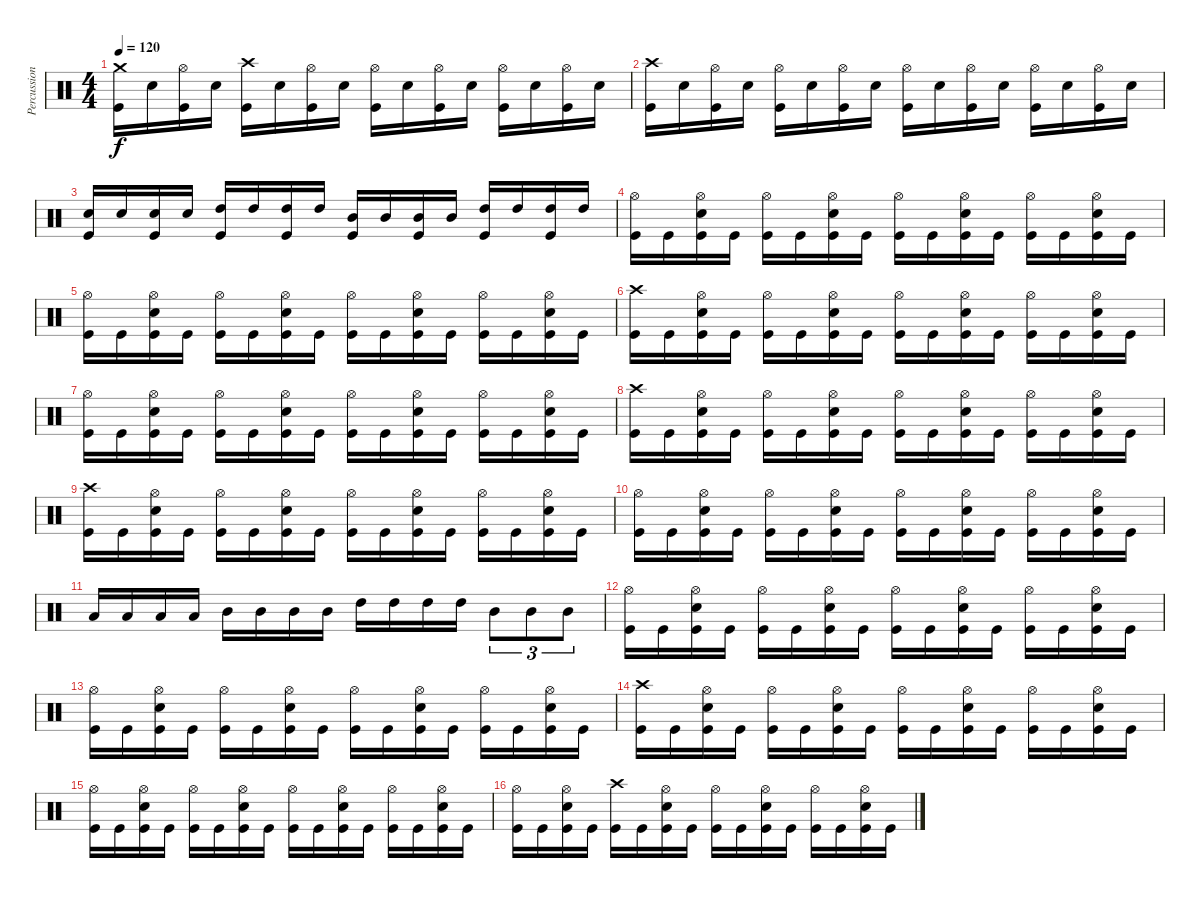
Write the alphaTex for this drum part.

\track ("Percussioni" "Percussion") {instrument percussion}
\staff {score}
\articulation defaults
\ts (4 4)
\tempo 120
\clef neutral
\ks c
("Crash medium (hit)" "Kick (hit)").16{dy f} "Electric Snare (hit)".16 ("Hi-Hat (open)" "Kick (hit)").16 "Electric Snare (hit)".16 ("Crash high (hit)" "Kick (hit)").16 "Electric Snare (hit)".16 ("Hi-Hat (open)" "Kick (hit)").16 "Electric Snare (hit)".16 ("Hi-Hat (open)" "Kick (hit)").16 "Electric Snare (hit)".16 ("Hi-Hat (open)" "Kick (hit)").16 "Electric Snare (hit)".16 ("Hi-Hat (open)" "Kick (hit)").16 "Electric Snare (hit)".16 ("Hi-Hat (open)" "Kick (hit)").16 "Electric Snare (hit)".16 |
("Crash high (hit)" "Kick (hit)").16 "Electric Snare (hit)".16 ("Hi-Hat (open)" "Kick (hit)").16 "Electric Snare (hit)".16 ("Hi-Hat (open)" "Kick (hit)").16 "Electric Snare (hit)".16 ("Hi-Hat (open)" "Kick (hit)").16 "Electric Snare (hit)".16 ("Hi-Hat (open)" "Kick (hit)").16 "Electric Snare (hit)".16 ("Hi-Hat (open)" "Kick (hit)").16 "Electric Snare (hit)".16 ("Hi-Hat (open)" "Kick (hit)").16 "Electric Snare (hit)".16 ("Hi-Hat (open)" "Kick (hit)").16 "Electric Snare (hit)".16 |
("Electric Snare (hit)" "Kick (hit)").16 "Electric Snare (hit)".16 ("Electric Snare (hit)" "Kick (hit)").16 "Electric Snare (hit)".16 ("High Tom (hit)" "Kick (hit)").16 "High Tom (hit)".16 ("High Tom (hit)" "Kick (hit)").16 "High Tom (hit)".16 ("Mid Tom (hit)" "Kick (hit)").16 "Mid Tom (hit)".16 ("Mid Tom (hit)" "Kick (hit)").16 "Mid Tom (hit)".16 ("High Tom (hit)" "Kick (hit)").16 "High Tom (hit)".16 ("High Tom (hit)" "Kick (hit)").16 "High Tom (hit)".16 |
("Hi-Hat (open)" "Kick (hit)").16 "Kick (hit)".16 ("Hi-Hat (open)" "Electric Snare (hit)" "Kick (hit)").16 "Kick (hit)".16 ("Hi-Hat (open)" "Kick (hit)").16 "Kick (hit)".16 ("Hi-Hat (open)" "Electric Snare (hit)" "Kick (hit)").16 "Kick (hit)".16 ("Hi-Hat (open)" "Kick (hit)").16 "Kick (hit)".16 ("Hi-Hat (open)" "Electric Snare (hit)" "Kick (hit)").16 "Kick (hit)".16 ("Hi-Hat (open)" "Kick (hit)").16 "Kick (hit)".16 ("Hi-Hat (open)" "Electric Snare (hit)" "Kick (hit)").16 "Kick (hit)".16 |
("Hi-Hat (open)" "Kick (hit)").16 "Kick (hit)".16 ("Hi-Hat (open)" "Electric Snare (hit)" "Kick (hit)").16 "Kick (hit)".16 ("Hi-Hat (open)" "Kick (hit)").16 "Kick (hit)".16 ("Hi-Hat (open)" "Electric Snare (hit)" "Kick (hit)").16 "Kick (hit)".16 ("Hi-Hat (open)" "Kick (hit)").16 "Kick (hit)".16 ("Hi-Hat (open)" "Electric Snare (hit)" "Kick (hit)").16 "Kick (hit)".16 ("Hi-Hat (open)" "Kick (hit)").16 "Kick (hit)".16 ("Hi-Hat (open)" "Electric Snare (hit)" "Kick (hit)").16 "Kick (hit)".16 |
("Crash high (hit)" "Kick (hit)").16 "Kick (hit)".16 ("Hi-Hat (open)" "Electric Snare (hit)" "Kick (hit)").16 "Kick (hit)".16 ("Hi-Hat (open)" "Kick (hit)").16 "Kick (hit)".16 ("Hi-Hat (open)" "Electric Snare (hit)" "Kick (hit)").16 "Kick (hit)".16 ("Hi-Hat (open)" "Kick (hit)").16 "Kick (hit)".16 ("Hi-Hat (open)" "Electric Snare (hit)" "Kick (hit)").16 "Kick (hit)".16 ("Hi-Hat (open)" "Kick (hit)").16 "Kick (hit)".16 ("Hi-Hat (open)" "Electric Snare (hit)" "Kick (hit)").16 "Kick (hit)".16 |
("Hi-Hat (open)" "Kick (hit)").16 "Kick (hit)".16 ("Hi-Hat (open)" "Electric Snare (hit)" "Kick (hit)").16 "Kick (hit)".16 ("Hi-Hat (open)" "Kick (hit)").16 "Kick (hit)".16 ("Hi-Hat (open)" "Electric Snare (hit)" "Kick (hit)").16 "Kick (hit)".16 ("Hi-Hat (open)" "Kick (hit)").16 "Kick (hit)".16 ("Hi-Hat (open)" "Electric Snare (hit)" "Kick (hit)").16 "Kick (hit)".16 ("Hi-Hat (open)" "Kick (hit)").16 "Kick (hit)".16 ("Hi-Hat (open)" "Electric Snare (hit)" "Kick (hit)").16 "Kick (hit)".16 |
("Crash high (hit)" "Kick (hit)").16 "Kick (hit)".16 ("Hi-Hat (open)" "Electric Snare (hit)" "Kick (hit)").16 "Kick (hit)".16 ("Hi-Hat (open)" "Kick (hit)").16 "Kick (hit)".16 ("Hi-Hat (open)" "Electric Snare (hit)" "Kick (hit)").16 "Kick (hit)".16 ("Hi-Hat (open)" "Kick (hit)").16 "Kick (hit)".16 ("Hi-Hat (open)" "Electric Snare (hit)" "Kick (hit)").16 "Kick (hit)".16 ("Hi-Hat (open)" "Kick (hit)").16 "Kick (hit)".16 ("Hi-Hat (open)" "Electric Snare (hit)" "Kick (hit)").16 "Kick (hit)".16 |
("Crash high (hit)" "Kick (hit)").16 "Kick (hit)".16 ("Hi-Hat (open)" "Electric Snare (hit)" "Kick (hit)").16 "Kick (hit)".16 ("Hi-Hat (open)" "Kick (hit)").16 "Kick (hit)".16 ("Hi-Hat (open)" "Electric Snare (hit)" "Kick (hit)").16 "Kick (hit)".16 ("Hi-Hat (open)" "Kick (hit)").16 "Kick (hit)".16 ("Hi-Hat (open)" "Electric Snare (hit)" "Kick (hit)").16 "Kick (hit)".16 ("Hi-Hat (open)" "Kick (hit)").16 "Kick (hit)".16 ("Hi-Hat (open)" "Electric Snare (hit)" "Kick (hit)").16 "Kick (hit)".16 |
("Hi-Hat (open)" "Kick (hit)").16 "Kick (hit)".16 ("Hi-Hat (open)" "Electric Snare (hit)" "Kick (hit)").16 "Kick (hit)".16 ("Hi-Hat (open)" "Kick (hit)").16 "Kick (hit)".16 ("Hi-Hat (open)" "Electric Snare (hit)" "Kick (hit)").16 "Kick (hit)".16 ("Hi-Hat (open)" "Kick (hit)").16 "Kick (hit)".16 ("Hi-Hat (open)" "Electric Snare (hit)" "Kick (hit)").16 "Kick (hit)".16 ("Hi-Hat (open)" "Kick (hit)").16 "Kick (hit)".16 ("Hi-Hat (open)" "Electric Snare (hit)" "Kick (hit)").16 "Kick (hit)".16 |
"Low Tom (hit)".16 "Low Tom (hit)".16 "Low Tom (hit)".16 "Low Tom (hit)".16 "Mid Tom (hit)".16 "Mid Tom (hit)".16 "Mid Tom (hit)".16 "Mid Tom (hit)".16 "High Tom (hit)".16 "High Tom (hit)".16 "High Tom (hit)".16 "High Tom (hit)".16 "Mid Tom (hit)".8{tu (3 2)} "Mid Tom (hit)".8{tu (3 2)} "Mid Tom (hit)".8{tu (3 2)} |
("Hi-Hat (open)" "Kick (hit)").16 "Kick (hit)".16 ("Hi-Hat (open)" "Electric Snare (hit)" "Kick (hit)").16 "Kick (hit)".16 ("Hi-Hat (open)" "Kick (hit)").16 "Kick (hit)".16 ("Hi-Hat (open)" "Electric Snare (hit)" "Kick (hit)").16 "Kick (hit)".16 ("Hi-Hat (open)" "Kick (hit)").16 "Kick (hit)".16 ("Hi-Hat (open)" "Electric Snare (hit)" "Kick (hit)").16 "Kick (hit)".16 ("Hi-Hat (open)" "Kick (hit)").16 "Kick (hit)".16 ("Hi-Hat (open)" "Electric Snare (hit)" "Kick (hit)").16 "Kick (hit)".16 |
("Hi-Hat (open)" "Kick (hit)").16 "Kick (hit)".16 ("Hi-Hat (open)" "Electric Snare (hit)" "Kick (hit)").16 "Kick (hit)".16 ("Hi-Hat (open)" "Kick (hit)").16 "Kick (hit)".16 ("Hi-Hat (open)" "Electric Snare (hit)" "Kick (hit)").16 "Kick (hit)".16 ("Hi-Hat (open)" "Kick (hit)").16 "Kick (hit)".16 ("Hi-Hat (open)" "Electric Snare (hit)" "Kick (hit)").16 "Kick (hit)".16 ("Hi-Hat (open)" "Kick (hit)").16 "Kick (hit)".16 ("Hi-Hat (open)" "Electric Snare (hit)" "Kick (hit)").16 "Kick (hit)".16 |
("Crash high (hit)" "Kick (hit)").16 "Kick (hit)".16 ("Hi-Hat (open)" "Electric Snare (hit)" "Kick (hit)").16 "Kick (hit)".16 ("Hi-Hat (open)" "Kick (hit)").16 "Kick (hit)".16 ("Hi-Hat (open)" "Electric Snare (hit)" "Kick (hit)").16 "Kick (hit)".16 ("Hi-Hat (open)" "Kick (hit)").16 "Kick (hit)".16 ("Hi-Hat (open)" "Electric Snare (hit)" "Kick (hit)").16 "Kick (hit)".16 ("Hi-Hat (open)" "Kick (hit)").16 "Kick (hit)".16 ("Hi-Hat (open)" "Electric Snare (hit)" "Kick (hit)").16 "Kick (hit)".16 |
("Hi-Hat (open)" "Kick (hit)").16 "Kick (hit)".16 ("Hi-Hat (open)" "Electric Snare (hit)" "Kick (hit)").16 "Kick (hit)".16 ("Hi-Hat (open)" "Kick (hit)").16 "Kick (hit)".16 ("Hi-Hat (open)" "Electric Snare (hit)" "Kick (hit)").16 "Kick (hit)".16 ("Hi-Hat (open)" "Kick (hit)").16 "Kick (hit)".16 ("Hi-Hat (open)" "Electric Snare (hit)" "Kick (hit)").16 "Kick (hit)".16 ("Hi-Hat (open)" "Kick (hit)").16 "Kick (hit)".16 ("Hi-Hat (open)" "Electric Snare (hit)" "Kick (hit)").16 "Kick (hit)".16 |
("Hi-Hat (open)" "Kick (hit)").16 "Kick (hit)".16 ("Hi-Hat (open)" "Electric Snare (hit)" "Kick (hit)").16 "Kick (hit)".16 ("Crash high (hit)" "Kick (hit)").16 "Kick (hit)".16 ("Hi-Hat (open)" "Electric Snare (hit)" "Kick (hit)").16 "Kick (hit)".16 ("Hi-Hat (open)" "Kick (hit)").16 "Kick (hit)".16 ("Hi-Hat (open)" "Electric Snare (hit)" "Kick (hit)").16 "Kick (hit)".16 ("Hi-Hat (open)" "Kick (hit)").16 "Kick (hit)".16 ("Hi-Hat (open)" "Electric Snare (hit)" "Kick (hit)").16 "Kick (hit)".16
